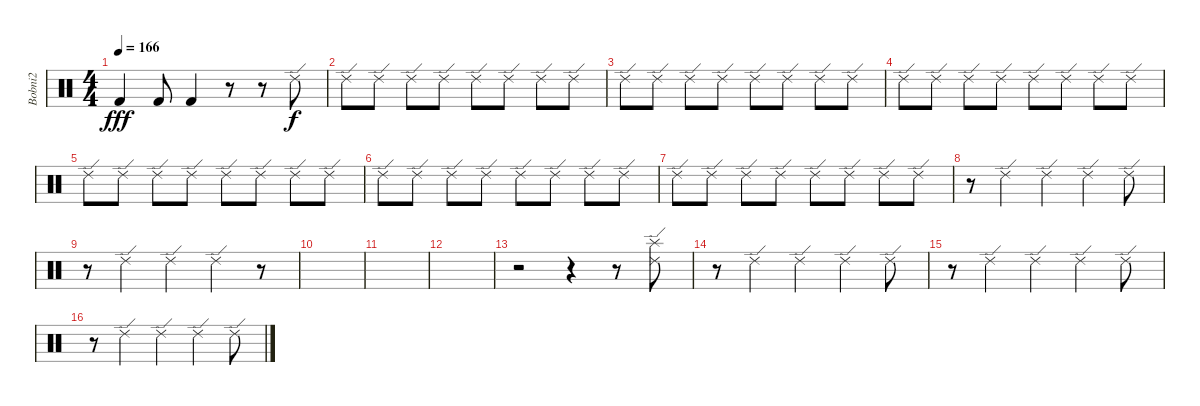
\track ("Bobni2" "Bobni2") {instrument percussion}
\staff {score}
\articulation defaults
\ts (4 4)
\tempo 166
\clef neutral
\ks c "Kick (hit) 2".4{dy fff} "Kick (hit) 2".8 "Kick (hit) 2".4
r.8 r.8 "Ride (edge) 2".8{dy f} |
"Ride (edge) 2".8 "Ride (edge) 2".8 "Ride (edge) 2".8 "Ride (edge) 2".8 "Ride (edge) 2".8 "Ride (edge) 2".8 "Ride (edge) 2".8 "Ride (edge) 2".8 |
"Ride (edge) 2".8 "Ride (edge) 2".8 "Ride (edge) 2".8 "Ride (edge) 2".8 "Ride (edge) 2".8 "Ride (edge) 2".8 "Ride (edge) 2".8 "Ride (edge) 2".8 |
"Ride (edge) 2".8 "Ride (edge) 2".8 "Ride (edge) 2".8 "Ride (edge) 2".8 "Ride (edge) 2".8 "Ride (edge) 2".8 "Ride (edge) 2".8 "Ride (edge) 2".8 |
"Ride (edge) 2".8 "Ride (edge) 2".8 "Ride (edge) 2".8 "Ride (edge) 2".8 "Ride (edge) 2".8 "Ride (edge) 2".8 "Ride (edge) 2".8 "Ride (edge) 2".8 |
"Ride (edge) 2".8 "Ride (edge) 2".8 "Ride (edge) 2".8 "Ride (edge) 2".8 "Ride (edge) 2".8 "Ride (edge) 2".8 "Ride (edge) 2".8 "Ride (edge) 2".8 |
"Ride (edge) 2".8 "Ride (edge) 2".8 "Ride (edge) 2".8 "Ride (edge) 2".8 "Ride (edge) 2".8 "Ride (edge) 2".8 "Ride (edge) 2".8 "Ride (edge) 2".8 |
r.8 "Ride (edge) 2".4 "Ride (edge) 2".4 "Ride (edge) 2".4 "Ride (edge) 2".8 |
r.8 "Ride (edge) 2".4 "Ride (edge) 2".4 "Ride (edge) 2".4 r.8 |
|
|
|
r.2 r.4 r.8 ("Ride (edge) 2" "Splash (hit)").8 |
r.8 "Ride (edge) 2".4 "Ride (edge) 2".4 "Ride (edge) 2".4 "Ride (edge) 2".8 |
r.8 "Ride (edge) 2".4 "Ride (edge) 2".4 "Ride (edge) 2".4 "Ride (edge) 2".8 |
r.8 "Ride (edge) 2".4 "Ride (edge) 2".4 "Ride (edge) 2".4 "Ride (edge) 2".8
